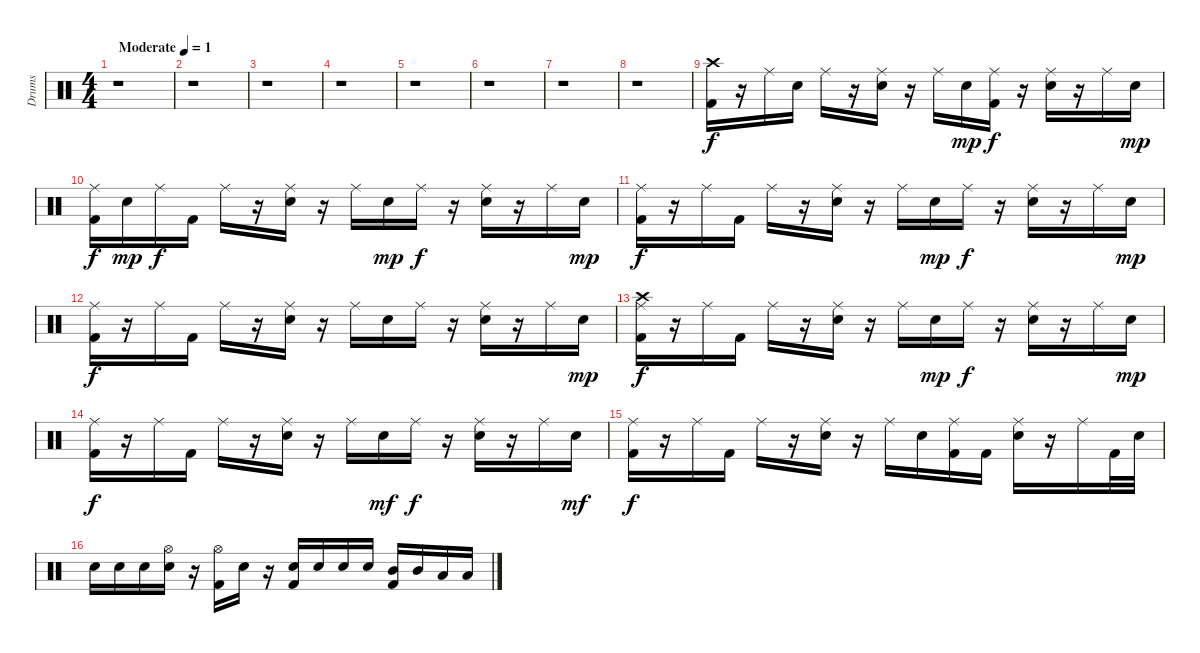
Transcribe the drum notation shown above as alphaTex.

\track ("Drums" "Drums") {instrument percussion}
\staff {score}
\articulation defaults
\ts (4 4)
\tempo (1 "Moderate")
\clef neutral
\ks c
r.1{dy f} |
r.1 |
r.1 |
r.1 |
r.1 |
r.1 |
r.1 |
r.1 |
("Kick (hit) 2" "Crash high (hit)").16 r.16 "Ride (middle)".16 "Snare (hit) 2".16 "Ride (middle)".16 r.16 ("Snare (hit) 2" "Ride (middle)").16 r.16 "Ride (middle)".16 "Snare (hit) 2".16{dy mp} ("Kick (hit) 2" "Ride (middle)").16{dy f} r.16 ("Snare (hit) 2" "Ride (middle)").16 r.16 "Ride (middle)".16 "Snare (hit) 2".16{dy mp} |
("Kick (hit) 2" "Ride (middle)").16{dy f} "Snare (hit) 2".16{dy mp} "Ride (middle)".16{dy f} "Kick (hit) 2".16 "Ride (middle)".16 r.16 ("Snare (hit) 2" "Ride (middle)").16 r.16 "Ride (middle)".16 "Snare (hit) 2".16{dy mp} "Ride (middle)".16{dy f} r.16 ("Snare (hit) 2" "Ride (middle)").16 r.16 "Ride (middle)".16 "Snare (hit) 2".16{dy mp} |
("Kick (hit) 2" "Ride (middle)").16{dy f} r.16 "Ride (middle)".16 "Kick (hit) 2".16 "Ride (middle)".16 r.16 ("Snare (hit) 2" "Ride (middle)").16 r.16 "Ride (middle)".16 "Snare (hit) 2".16{dy mp} "Ride (middle)".16{dy f} r.16 ("Snare (hit) 2" "Ride (middle)").16 r.16 "Ride (middle)".16 "Snare (hit) 2".16{dy mp} |
("Kick (hit) 2" "Ride (middle)").16{dy f} r.16 "Ride (middle)".16 "Kick (hit) 2".16 "Ride (middle)".16 r.16 ("Snare (hit) 2" "Ride (middle)").16 r.16 "Ride (middle)".16 "Snare (hit) 2".16 "Ride (middle)".16 r.16 ("Snare (hit) 2" "Ride (middle)").16 r.16 "Ride (middle)".16 "Snare (hit) 2".16{dy mp} |
("Kick (hit) 2" "Crash high (hit)" "Ride (middle)").16{dy f} r.16 "Ride (middle)".16 "Kick (hit) 2".16 "Ride (middle)".16 r.16 ("Snare (hit) 2" "Ride (middle)").16 r.16 "Ride (middle)".16 "Snare (hit) 2".16{dy mp} "Ride (middle)".16{dy f} r.16 ("Snare (hit) 2" "Ride (middle)").16 r.16 "Ride (middle)".16 "Snare (hit) 2".16{dy mp} |
("Kick (hit) 2" "Ride (middle)").16{dy f} r.16 "Ride (middle)".16 "Kick (hit) 2".16 "Ride (middle)".16 r.16 ("Snare (hit) 2" "Ride (middle)").16 r.16 "Ride (middle)".16 "Snare (hit) 2".16{dy mf} "Ride (middle)".16{dy f} r.16 ("Snare (hit) 2" "Ride (middle)").16 r.16 "Ride (middle)".16 "Snare (hit) 2".16{dy mf} |
("Kick (hit) 2" "Ride (middle)").16{dy f} r.16 "Ride (middle)".16 "Kick (hit) 2".16 "Ride (middle)".16 r.16 ("Snare (hit) 2" "Ride (middle)").16 r.16 "Ride (middle)".16 "Snare (hit) 2".16 ("Kick (hit) 2" "Ride (middle)").16 "Kick (hit) 2".16 ("Snare (hit) 2" "Ride (middle)").16 r.16 "Ride (middle)".16 "Kick (hit) 2".32 "Snare (hit) 2".32 |
"Snare (hit) 2".16 "Snare (hit) 2".16 "Snare (hit) 2".16 ("Snare (hit) 2" "Hi-Hat (open)").16 r.16 ("Kick (hit) 2" "Hi-Hat (open)").16 "Snare (hit) 2".16 r.16 ("Kick (hit) 2" "Snare (hit) 2").16 "Snare (hit) 2".16 "Snare (hit) 2".16 "Snare (hit) 2".16 ("Kick (hit) 2" "Mid Tom (hit)").16 "Mid Tom (hit)".16 "Low Floor Tom (hit)".16 "Low Floor Tom (hit)".16
